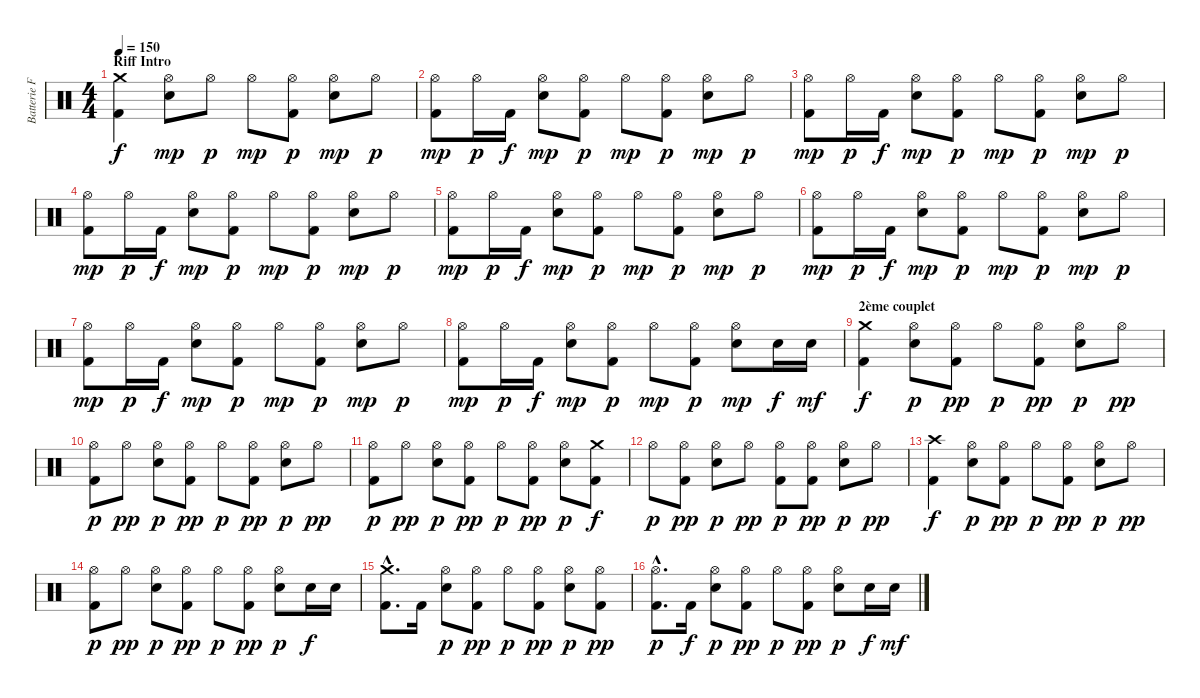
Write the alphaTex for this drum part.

\track ("Batterie Franck" "Batterie F") {instrument percussion}
\staff {score}
\articulation defaults
\ts (4 4)
\section ("" "Riff Intro")
\tempo 150
\clef neutral
\ks c
("Crash medium (hit)" "Kick (hit) 2").4{dy f} ("Hi-Hat (open)" "Snare (hit) 2").8{dy mp} "Hi-Hat (open)".8{dy p} "Hi-Hat (open)".8{dy mp} ("Hi-Hat (open)" "Kick (hit) 2").8{dy p} ("Hi-Hat (open)" "Snare (hit) 2").8{dy mp} "Hi-Hat (open)".8{dy p} |
("Hi-Hat (open)" "Kick (hit) 2").8{dy mp} "Hi-Hat (open)".16{dy p} "Kick (hit) 2".16{dy f} ("Hi-Hat (open)" "Snare (hit) 2").8{dy mp} ("Hi-Hat (open)" "Kick (hit) 2").8{dy p} "Hi-Hat (open)".8{dy mp} ("Hi-Hat (open)" "Kick (hit) 2").8{dy p} ("Hi-Hat (open)" "Snare (hit) 2").8{dy mp} "Hi-Hat (open)".8{dy p} |
("Hi-Hat (open)" "Kick (hit) 2").8{dy mp} "Hi-Hat (open)".16{dy p} "Kick (hit) 2".16{dy f} ("Hi-Hat (open)" "Snare (hit) 2").8{dy mp} ("Hi-Hat (open)" "Kick (hit) 2").8{dy p} "Hi-Hat (open)".8{dy mp} ("Hi-Hat (open)" "Kick (hit) 2").8{dy p} ("Hi-Hat (open)" "Snare (hit) 2").8{dy mp} "Hi-Hat (open)".8{dy p} |
("Hi-Hat (open)" "Kick (hit) 2").8{dy mp} "Hi-Hat (open)".16{dy p} "Kick (hit) 2".16{dy f} ("Hi-Hat (open)" "Snare (hit) 2").8{dy mp} ("Hi-Hat (open)" "Kick (hit) 2").8{dy p} "Hi-Hat (open)".8{dy mp} ("Hi-Hat (open)" "Kick (hit) 2").8{dy p} ("Hi-Hat (open)" "Snare (hit) 2").8{dy mp} "Hi-Hat (open)".8{dy p} |
("Hi-Hat (open)" "Kick (hit) 2").8{dy mp} "Hi-Hat (open)".16{dy p} "Kick (hit) 2".16{dy f} ("Hi-Hat (open)" "Snare (hit) 2").8{dy mp} ("Hi-Hat (open)" "Kick (hit) 2").8{dy p} "Hi-Hat (open)".8{dy mp} ("Hi-Hat (open)" "Kick (hit) 2").8{dy p} ("Hi-Hat (open)" "Snare (hit) 2").8{dy mp} "Hi-Hat (open)".8{dy p} |
("Hi-Hat (open)" "Kick (hit) 2").8{dy mp} "Hi-Hat (open)".16{dy p} "Kick (hit) 2".16{dy f} ("Hi-Hat (open)" "Snare (hit) 2").8{dy mp} ("Hi-Hat (open)" "Kick (hit) 2").8{dy p} "Hi-Hat (open)".8{dy mp} ("Hi-Hat (open)" "Kick (hit) 2").8{dy p} ("Hi-Hat (open)" "Snare (hit) 2").8{dy mp} "Hi-Hat (open)".8{dy p} |
("Hi-Hat (open)" "Kick (hit) 2").8{dy mp} "Hi-Hat (open)".16{dy p} "Kick (hit) 2".16{dy f} ("Hi-Hat (open)" "Snare (hit) 2").8{dy mp} ("Hi-Hat (open)" "Kick (hit) 2").8{dy p} "Hi-Hat (open)".8{dy mp} ("Hi-Hat (open)" "Kick (hit) 2").8{dy p} ("Hi-Hat (open)" "Snare (hit) 2").8{dy mp} "Hi-Hat (open)".8{dy p} |
("Hi-Hat (open)" "Kick (hit) 2").8{dy mp} "Hi-Hat (open)".16{dy p} "Kick (hit) 2".16{dy f} ("Hi-Hat (open)" "Snare (hit) 2").8{dy mp} ("Hi-Hat (open)" "Kick (hit) 2").8{dy p} "Hi-Hat (open)".8{dy mp} ("Hi-Hat (open)" "Kick (hit) 2").8{dy p} ("Hi-Hat (open)" "Snare (hit) 2").8{dy mp} "Snare (hit) 2".16{dy f} "Snare (hit) 2".16{dy mf} |
\section ("" "2ème couplet")
("Crash medium (hit)" "Kick (hit) 2").4{dy f} ("Hi-Hat (open)" "Snare (hit) 2").8{dy p} ("Hi-Hat (open)" "Kick (hit) 2").8{dy pp} "Hi-Hat (open)".8{dy p} ("Hi-Hat (open)" "Kick (hit) 2").8{dy pp} ("Hi-Hat (open)" "Snare (hit) 2").8{dy p} "Hi-Hat (open)".8{dy pp} |
("Hi-Hat (open)" "Kick (hit) 2").8{dy p} "Hi-Hat (open)".8{dy pp} ("Hi-Hat (open)" "Snare (hit) 2").8{dy p} ("Hi-Hat (open)" "Kick (hit) 2").8{dy pp} "Hi-Hat (open)".8{dy p} ("Hi-Hat (open)" "Kick (hit) 2").8{dy pp} ("Hi-Hat (open)" "Snare (hit) 2").8{dy p} "Hi-Hat (open)".8{dy pp} |
("Hi-Hat (open)" "Kick (hit) 2").8{dy p} "Hi-Hat (open)".8{dy pp} ("Hi-Hat (open)" "Snare (hit) 2").8{dy p} ("Hi-Hat (open)" "Kick (hit) 2").8{dy pp} "Hi-Hat (open)".8{dy p} ("Hi-Hat (open)" "Kick (hit) 2").8{dy pp} ("Hi-Hat (open)" "Snare (hit) 2").8{dy p} ("Crash medium (hit)" "Kick (hit) 2").8{dy f} |
"Hi-Hat (open)".8{dy p} ("Hi-Hat (open)" "Kick (hit) 2").8{dy pp} ("Hi-Hat (open)" "Snare (hit) 2").8{dy p} "Hi-Hat (open)".8{dy pp} ("Hi-Hat (open)" "Kick (hit) 2").8{dy p} ("Hi-Hat (open)" "Kick (hit) 2").8{dy pp} ("Hi-Hat (open)" "Snare (hit) 2").8{dy p} "Hi-Hat (open)".8{dy pp} |
("Crash high (hit)" "Kick (hit) 2").4{dy f} ("Hi-Hat (open)" "Snare (hit) 2").8{dy p} ("Hi-Hat (open)" "Kick (hit) 2").8{dy pp} "Hi-Hat (open)".8{dy p} ("Hi-Hat (open)" "Kick (hit) 2").8{dy pp} ("Hi-Hat (open)" "Snare (hit) 2").8{dy p} "Hi-Hat (open)".8{dy pp} |
("Hi-Hat (open)" "Kick (hit) 2").8{dy p} "Hi-Hat (open)".8{dy pp} ("Hi-Hat (open)" "Snare (hit) 2").8{dy p} ("Hi-Hat (open)" "Kick (hit) 2").8{dy pp} "Hi-Hat (open)".8{dy p} ("Hi-Hat (open)" "Kick (hit) 2").8{dy pp} ("Hi-Hat (open)" "Snare (hit) 2").8{dy p} "Snare (hit) 2".16{dy f} "Snare (hit) 2".16 |
("Crash medium (hit)"{hac} "Kick (hit) 2"{hac}).8{d} "Kick (hit) 2".16 ("Hi-Hat (open)" "Snare (hit) 2").8{dy p} ("Hi-Hat (open)" "Kick (hit) 2").8{dy pp} "Hi-Hat (open)".8{dy p} ("Hi-Hat (open)" "Kick (hit) 2").8{dy pp} ("Hi-Hat (open)" "Snare (hit) 2").8{dy p} ("Hi-Hat (open)" "Kick (hit) 2").8{dy pp} |
("Hi-Hat (open)" "Kick (hit) 2"{hac}).8{d dy p} "Kick (hit) 2".16{dy f} ("Hi-Hat (open)" "Snare (hit) 2").8{dy p} ("Hi-Hat (open)" "Kick (hit) 2").8{dy pp} "Hi-Hat (open)".8{dy p} ("Hi-Hat (open)" "Kick (hit) 2").8{dy pp} ("Hi-Hat (open)" "Snare (hit) 2").8{dy p} "Snare (hit) 2".16{dy f} "Snare (hit) 2".16{dy mf}
